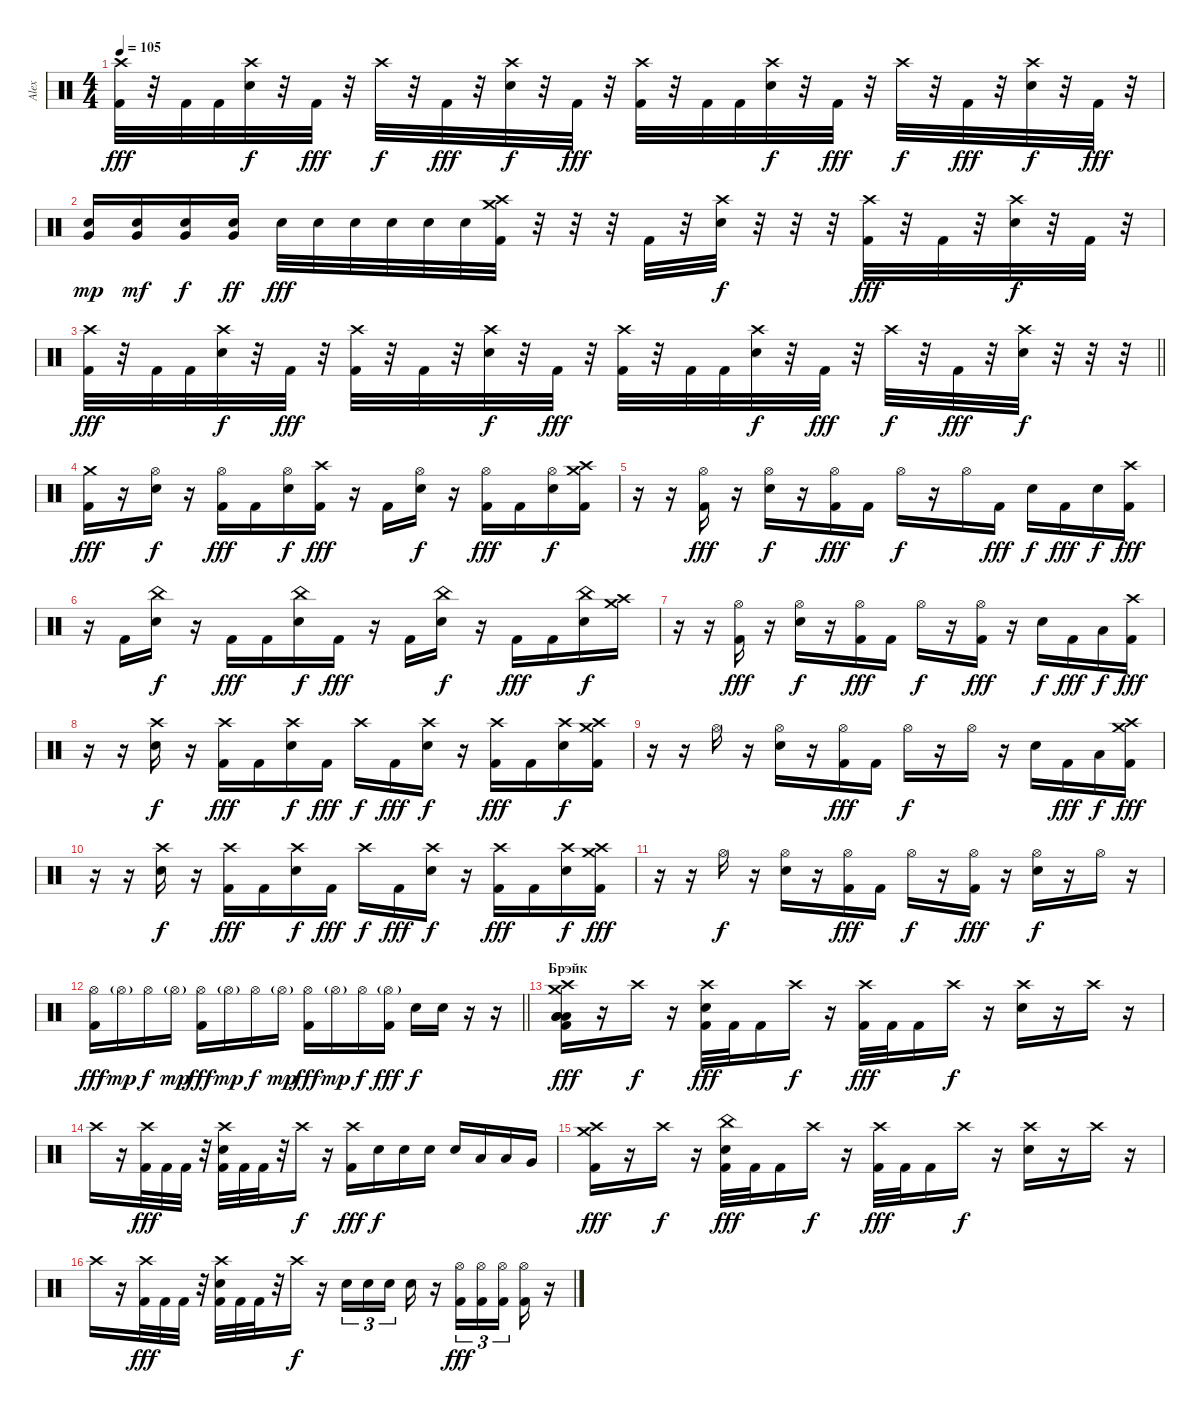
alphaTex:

\track ("Alex" "Alex") {instrument percussion}
\staff {score}
\articulation defaults
\ts (4 4)
\tempo 105
\clef neutral
\ks c
("Crash high (hit)" "Kick (hit) 2").32{dy fff} r.32 "Kick (hit) 2".32 "Kick (hit) 2".32 ("Crash high (hit)" "Electric Snare (hit)").32{dy f} r.32 "Kick (hit) 2".32{dy fff} r.32 "Crash high (hit)".32{dy f} r.32 "Kick (hit) 2".32{dy fff} r.32 ("Crash high (hit)" "Electric Snare (hit)").32{dy f} r.32 "Kick (hit) 2".32{dy fff} r.32 ("Crash high (hit)" "Kick (hit) 2").32 r.32 "Kick (hit) 2".32 "Kick (hit) 2".32 ("Crash high (hit)" "Electric Snare (hit)").32{dy f} r.32 "Kick (hit) 2".32{dy fff} r.32 "Crash high (hit)".32{dy f} r.32 "Kick (hit) 2".32{dy fff} r.32 ("Crash high (hit)" "Electric Snare (hit)").32{dy f} r.32 "Kick (hit) 2".32{dy fff} r.32 |
("Very Low Tom (hit)" "Electric Snare (hit)").16{dy mp} ("Very Low Tom (hit)" "Electric Snare (hit)").16{dy mf} ("Very Low Tom (hit)" "Electric Snare (hit)").16{dy f} ("Very Low Tom (hit)" "Electric Snare (hit)").16{dy ff} "Electric Snare (hit)".32{dy fff} "Electric Snare (hit)".32 "Electric Snare (hit)".32 "Electric Snare (hit)".32 "Electric Snare (hit)".32 "Electric Snare (hit)".32 ("Crash medium (hit)" "Crash high (hit)" "Kick (hit) 2").32 r.32 r.32 r.32 "Kick (hit) 2".32 r.32 ("Crash high (hit)" "Electric Snare (hit)").32{dy f} r.32 r.32 r.32 ("Crash high (hit)" "Kick (hit) 2").32{dy fff} r.32 "Kick (hit) 2".32 r.32 ("Crash high (hit)" "Electric Snare (hit)").32{dy f} r.32 "Kick (hit) 2".32 r.32 |
\barLineRight lightlight
("Crash high (hit)" "Kick (hit) 2").32{dy fff} r.32 "Kick (hit) 2".32 "Kick (hit) 2".32 ("Crash high (hit)" "Electric Snare (hit)").32{dy f} r.32 "Kick (hit) 2".32{dy fff} r.32 ("Crash high (hit)" "Kick (hit) 2").32 r.32 "Kick (hit) 2".32 r.32 ("Crash high (hit)" "Electric Snare (hit)").32{dy f} r.32 "Kick (hit) 2".32{dy fff} r.32 ("Crash high (hit)" "Kick (hit) 2").32 r.32 "Kick (hit) 2".32 "Kick (hit) 2".32 ("Crash high (hit)" "Electric Snare (hit)").32{dy f} r.32 "Kick (hit) 2".32{dy fff} r.32 "Crash high (hit)".32{dy f} r.32 "Kick (hit) 2".32{dy fff} r.32 ("Crash high (hit)" "Electric Snare (hit)").32{dy f} r.32 r.32 r.32 |
\section ("" "")
("Crash medium (hit)" "Kick (hit) 2").16{dy fff} r.16 ("Hi-Hat (open)" "Electric Snare (hit)").16{dy f} r.16 ("Hi-Hat (open)" "Kick (hit) 2").16{dy fff} "Kick (hit) 2".16 ("Hi-Hat (open)" "Electric Snare (hit)").16{dy f} ("Crash high (hit)" "Kick (hit) 2").16{dy fff} r.16 "Kick (hit) 2".16 ("Hi-Hat (open)" "Electric Snare (hit)").16{dy f} r.16 ("Hi-Hat (open)" "Kick (hit) 2").16{dy fff} "Kick (hit) 2".16 ("Hi-Hat (open)" "Electric Snare (hit)").16{dy f} ("Crash medium (hit)" "Crash high (hit)" "Kick (hit) 2").16 |
r.16 r.16 ("Hi-Hat (open)" "Kick (hit) 2").16{dy fff} r.16 ("Hi-Hat (open)" "Electric Snare (hit)").16{dy f} r.16 ("Hi-Hat (open)" "Kick (hit) 2").16{dy fff} "Kick (hit) 2".16 "Hi-Hat (open)".16{dy f} r.16 "Hi-Hat (open)".16 "Kick (hit) 2".16{dy fff} "Electric Snare (hit)".16{dy f} "Kick (hit) 2".16{dy fff} "Electric Snare (hit)".16{dy f} ("Crash high (hit)" "Kick (hit) 2").16{dy fff} |
r.16 "Kick (hit) 2".16 ("China (hit)" "Electric Snare (hit)").16{dy f} r.16 "Kick (hit) 2".16{dy fff} "Kick (hit) 2".16 ("China (hit)" "Electric Snare (hit)").16{dy f} "Kick (hit) 2".16{dy fff} r.16 "Kick (hit) 2".16 ("China (hit)" "Electric Snare (hit)").16{dy f} r.16 "Kick (hit) 2".16{dy fff} "Kick (hit) 2".16 ("China (hit)" "Electric Snare (hit)").16{dy f} ("Crash high (hit)" "Crash medium (hit)").16 |
r.16 r.16 ("Hi-Hat (open)" "Kick (hit) 2").16{dy fff} r.16 ("Hi-Hat (open)" "Electric Snare (hit)").16{dy f} r.16 ("Hi-Hat (open)" "Kick (hit) 2").16{dy fff} "Kick (hit) 2".16 "Hi-Hat (open)".16{dy f} r.16 ("Hi-Hat (open)" "Kick (hit) 2").16{dy fff} r.16 "Electric Snare (hit)".16{dy f} "Kick (hit) 2".16{dy fff} "Low Tom (hit)".16{dy f} ("Crash high (hit)" "Kick (hit) 2").16{dy fff} |
r.16 r.16 ("Crash high (hit)" "Electric Snare (hit)").16{dy f} r.16 ("Crash high (hit)" "Kick (hit) 2").16{dy fff} "Kick (hit) 2".16 ("Crash high (hit)" "Electric Snare (hit)").16{dy f} "Kick (hit) 2".16{dy fff} "Crash high (hit)".16{dy f} "Kick (hit) 2".16{dy fff} ("Crash high (hit)" "Electric Snare (hit)").16{dy f} r.16 ("Crash high (hit)" "Kick (hit) 2").16{dy fff} "Kick (hit) 2".16 ("Crash high (hit)" "Electric Snare (hit)").16{dy f} ("Crash medium (hit)" "Crash high (hit)" "Kick (hit) 2").16 |
r.16 r.16 "Hi-Hat (open)".16 r.16 ("Hi-Hat (open)" "Electric Snare (hit)").16 r.16 ("Hi-Hat (open)" "Kick (hit) 2").16{dy fff} "Kick (hit) 2".16 "Hi-Hat (open)".16{dy f} r.16 "Hi-Hat (open)".16 r.16 "Electric Snare (hit)".16 "Kick (hit) 2".16{dy fff} "Low Tom (hit)".16{dy f} ("Crash high (hit)" "Crash medium (hit)" "Kick (hit) 2").16{dy fff} |
r.16 r.16 ("Crash high (hit)" "Electric Snare (hit)").16{dy f} r.16 ("Crash high (hit)" "Kick (hit) 2").16{dy fff} "Kick (hit) 2".16 ("Crash high (hit)" "Electric Snare (hit)").16{dy f} "Kick (hit) 2".16{dy fff} "Crash high (hit)".16{dy f} "Kick (hit) 2".16{dy fff} ("Crash high (hit)" "Electric Snare (hit)").16{dy f} r.16 ("Crash high (hit)" "Kick (hit) 2").16{dy fff} "Kick (hit) 2".16 ("Crash high (hit)" "Electric Snare (hit)").16{dy f} ("Crash high (hit)" "Crash medium (hit)" "Kick (hit) 2").16{dy fff} |
r.16 r.16 "Hi-Hat (open)".16{dy f} r.16 ("Hi-Hat (open)" "Electric Snare (hit)").16 r.16 ("Hi-Hat (open)" "Kick (hit) 2").16{dy fff} "Kick (hit) 2".16 "Hi-Hat (open)".16{dy f} r.16 ("Hi-Hat (open)" "Kick (hit) 2").16{dy fff} r.16 ("Hi-Hat (open)" "Electric Snare (hit)").16{dy f} r.16 "Hi-Hat (open)".16 r.16 |
\barLineRight lightlight
("Hi-Hat (open)" "Kick (hit) 2").16{dy fff} "Hi-Hat (open)"{g}.16{dy mp} "Hi-Hat (open)".16{dy f} "Hi-Hat (open)"{g}.16{dy mp} ("Hi-Hat (open)" "Kick (hit) 2").16{dy fff} "Hi-Hat (open)"{g}.16{dy mp} "Hi-Hat (open)".16{dy f} "Hi-Hat (open)"{g}.16{dy mp} ("Hi-Hat (open)" "Kick (hit) 2").16{dy fff} "Hi-Hat (open)"{g}.16{dy mp} "Hi-Hat (open)".16{dy f} ("Hi-Hat (open)"{g} "Kick (hit) 2").16{dy fff} "Electric Snare (hit)".16{dy f} "Electric Snare (hit)".16 r.16{volume 0} r.16 |
\section ("" "Брэйк")
("Crash high (hit)" "Crash medium (hit)" "Low Floor Tom (hit)" "Low Floor Tom (hit)" "Low Floor Tom (hit)" "Kick (hit) 2").16{dy fff volume 16} r.16 "Crash high (hit)".16{dy f} r.16 ("Crash high (hit)" "Electric Snare (hit)" "Kick (hit) 2").32{dy fff} "Kick (hit) 2".32 "Kick (hit) 2".16 "Crash high (hit)".16{dy f} r.16 ("Crash high (hit)" "Kick (hit) 2").32{dy fff} "Kick (hit) 2".32 "Kick (hit) 2".16 "Crash high (hit)".16{dy f} r.16 ("Crash high (hit)" "Electric Snare (hit)").16 r.16 "Crash high (hit)".16 r.16 |
"Crash high (hit)".16 r.16 ("Crash high (hit)" "Kick (hit) 2").32{dy fff} "Kick (hit) 2".32 "Kick (hit) 2".32 r.32 ("Crash high (hit)" "Electric Snare (hit)" "Kick (hit) 2").32 "Kick (hit) 2".32 "Kick (hit) 2".32 r.32 "Crash high (hit)".16{dy f} r.16 ("Crash high (hit)" "Kick (hit) 2").16{dy fff} "Electric Snare (hit)".16{dy f} "Electric Snare (hit)".16 "Electric Snare (hit)".16 "Electric Snare (hit)".16 "Low Tom (hit)".16 "Low Tom (hit)".16 "Very Low Tom (hit)".16 |
("Crash high (hit)" "Crash medium (hit)" "Kick (hit) 2").16{dy fff} r.16 "Crash high (hit)".16{dy f} r.16 ("China (hit)" "Electric Snare (hit)" "Kick (hit) 2").32{dy fff} "Kick (hit) 2".32 "Kick (hit) 2".16 "Crash high (hit)".16{dy f} r.16 ("Crash high (hit)" "Kick (hit) 2").32{dy fff} "Kick (hit) 2".32 "Kick (hit) 2".16 "Crash high (hit)".16{dy f} r.16 ("Crash high (hit)" "Electric Snare (hit)").16 r.16 "Crash high (hit)".16 r.16 |
"Crash high (hit)".16 r.16 ("Crash high (hit)" "Kick (hit) 2").32{dy fff} "Kick (hit) 2".32 "Kick (hit) 2".32 r.32 ("Crash high (hit)" "Electric Snare (hit)" "Kick (hit) 2").32 "Kick (hit) 2".32 "Kick (hit) 2".32 r.32 "Crash high (hit)".16{dy f} r.16 "Electric Snare (hit)".16{tu (3 2)} "Electric Snare (hit)".16{tu (3 2)} "Electric Snare (hit)".16{tu (3 2) beam splitsecondary} "Electric Snare (hit)".16 r.16 ("Hi-Hat (open)" "Kick (hit) 2").16{tu (3 2) dy fff} ("Hi-Hat (open)" "Kick (hit) 2").16{tu (3 2)} ("Hi-Hat (open)" "Kick (hit) 2").16{tu (3 2) beam splitsecondary} ("Hi-Hat (open)" "Kick (hit) 2").16 r.16
